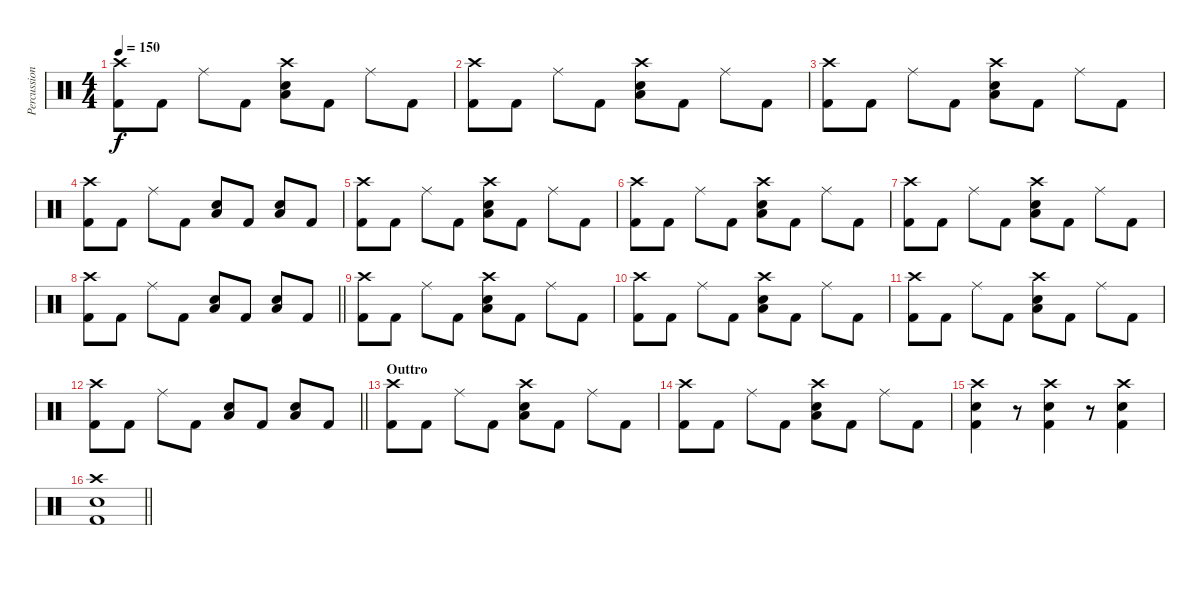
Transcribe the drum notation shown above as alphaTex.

\track ("Percussion" "Percussion") {instrument percussion}
\staff {score}
\articulation defaults
\ts (4 4)
\tempo 150
\clef neutral
\ks c
("Crash high (hit)" "Kick (hit) 2").8{dy f} "Kick (hit) 2".8 "Ride (middle)".8 "Kick (hit) 2".8 ("Crash high (hit)" "Low Tom (hit)" "Snare (hit) 2").8 "Kick (hit) 2".8 "Ride (middle)".8 "Kick (hit) 2".8 |
("Crash high (hit)" "Kick (hit) 2").8 "Kick (hit) 2".8 "Ride (middle)".8 "Kick (hit) 2".8 ("Crash high (hit)" "Low Tom (hit)" "Snare (hit) 2").8 "Kick (hit) 2".8 "Ride (middle)".8 "Kick (hit) 2".8 |
("Crash high (hit)" "Kick (hit) 2").8 "Kick (hit) 2".8 "Ride (middle)".8 "Kick (hit) 2".8 ("Crash high (hit)" "Low Tom (hit)" "Snare (hit) 2").8 "Kick (hit) 2".8 "Ride (middle)".8 "Kick (hit) 2".8 |
("Crash high (hit)" "Kick (hit) 2").8 "Kick (hit) 2".8 "Ride (middle)".8 "Kick (hit) 2".8 ("Low Tom (hit)" "Snare (hit) 2").8 "Kick (hit) 2".8 ("Low Tom (hit)" "Snare (hit) 2").8 "Kick (hit) 2".8 |
("Crash high (hit)" "Kick (hit) 2").8 "Kick (hit) 2".8 "Ride (middle)".8 "Kick (hit) 2".8 ("Crash high (hit)" "Low Tom (hit)" "Snare (hit) 2").8 "Kick (hit) 2".8 "Ride (middle)".8 "Kick (hit) 2".8 |
("Crash high (hit)" "Kick (hit) 2").8 "Kick (hit) 2".8 "Ride (middle)".8 "Kick (hit) 2".8 ("Crash high (hit)" "Low Tom (hit)" "Snare (hit) 2").8 "Kick (hit) 2".8 "Ride (middle)".8 "Kick (hit) 2".8 |
("Crash high (hit)" "Kick (hit) 2").8 "Kick (hit) 2".8 "Ride (middle)".8 "Kick (hit) 2".8 ("Crash high (hit)" "Low Tom (hit)" "Snare (hit) 2").8 "Kick (hit) 2".8 "Ride (middle)".8 "Kick (hit) 2".8 |
\barLineRight lightlight
("Crash high (hit)" "Kick (hit) 2").8 "Kick (hit) 2".8 "Ride (middle)".8 "Kick (hit) 2".8 ("Low Tom (hit)" "Snare (hit) 2").8 "Kick (hit) 2".8 ("Low Tom (hit)" "Snare (hit) 2").8 "Kick (hit) 2".8 |
("Crash high (hit)" "Kick (hit) 2").8 "Kick (hit) 2".8 "Ride (middle)".8 "Kick (hit) 2".8 ("Crash high (hit)" "Low Tom (hit)" "Snare (hit) 2").8 "Kick (hit) 2".8 "Ride (middle)".8 "Kick (hit) 2".8 |
("Crash high (hit)" "Kick (hit) 2").8 "Kick (hit) 2".8 "Ride (middle)".8 "Kick (hit) 2".8 ("Crash high (hit)" "Low Tom (hit)" "Snare (hit) 2").8 "Kick (hit) 2".8 "Ride (middle)".8 "Kick (hit) 2".8 |
("Crash high (hit)" "Kick (hit) 2").8 "Kick (hit) 2".8 "Ride (middle)".8 "Kick (hit) 2".8 ("Crash high (hit)" "Low Tom (hit)" "Snare (hit) 2").8 "Kick (hit) 2".8 "Ride (middle)".8 "Kick (hit) 2".8 |
\barLineRight lightlight
("Crash high (hit)" "Kick (hit) 2").8 "Kick (hit) 2".8 "Ride (middle)".8 "Kick (hit) 2".8 ("Low Tom (hit)" "Snare (hit) 2").8 "Kick (hit) 2".8 ("Low Tom (hit)" "Snare (hit) 2").8 "Kick (hit) 2".8 |
\section ("" "Outtro")
("Crash high (hit)" "Kick (hit) 2").8 "Kick (hit) 2".8 "Ride (middle)".8 "Kick (hit) 2".8 ("Crash high (hit)" "Low Tom (hit)" "Snare (hit) 2").8 "Kick (hit) 2".8 "Ride (middle)".8 "Kick (hit) 2".8 |
("Crash high (hit)" "Kick (hit) 2").8 "Kick (hit) 2".8 "Ride (middle)".8 "Kick (hit) 2".8 ("Crash high (hit)" "Low Tom (hit)" "Snare (hit) 2").8 "Kick (hit) 2".8 "Ride (middle)".8 "Kick (hit) 2".8 |
("Crash high (hit)" "Snare (hit) 2" "Kick (hit) 2").4 r.8 ("Crash high (hit)" "Snare (hit) 2" "Kick (hit) 2").4 r.8 ("Crash high (hit)" "Snare (hit) 2" "Kick (hit) 2").4 |
\barLineRight lightlight
("Crash high (hit)" "Snare (hit) 2" "Kick (hit) 2").1
